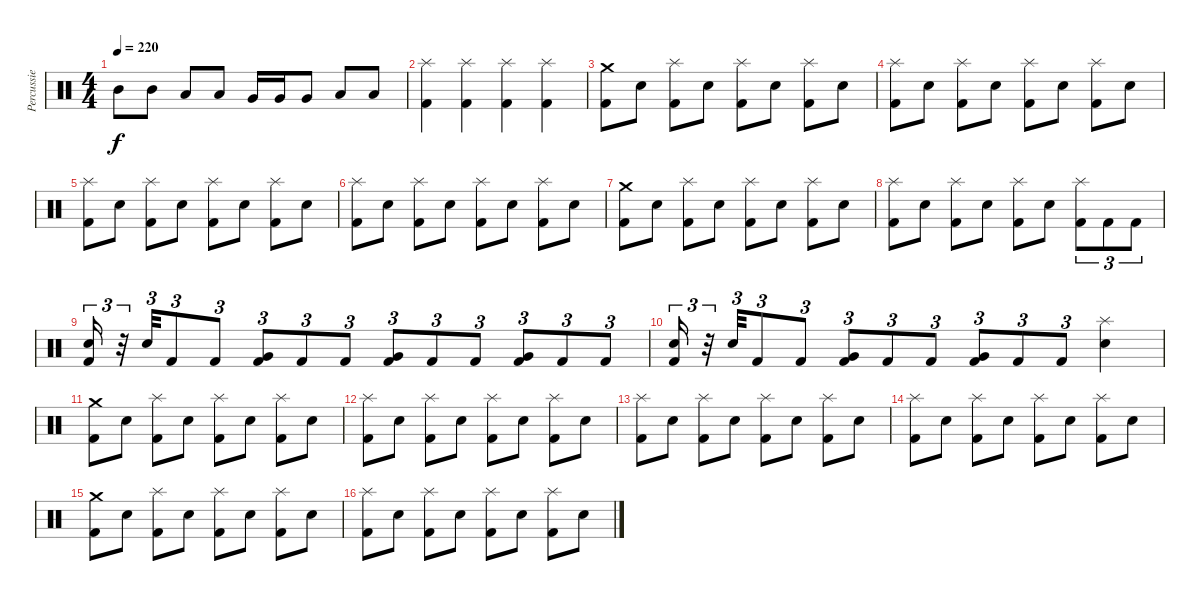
\track ("Percussie" "Percussie") {instrument percussion}
\staff {score}
\articulation defaults
\ts (4 4)
\tempo 220
\clef neutral
\ks c "Mid Tom (hit)".8{dy f} "Mid Tom (hit)".8 "Low Tom (hit)".8 "Low Tom (hit)".8 "Very Low Tom (hit)".16 "Very Low Tom (hit)".16 "Very Low Tom (hit)".8 "Low Floor Tom (hit)".8 "Low Floor Tom (hit)".8
|
("Splash (hit)" "Kick (hit) 2").4 ("Splash (hit)" "Kick (hit) 2").4 ("Splash (hit)" "Kick (hit) 2").4 ("Splash (hit)" "Kick (hit) 2").4 |
("Crash medium (hit)" "Kick (hit) 2").8 "Electric Snare (hit)".8 ("Splash (hit)" "Kick (hit) 2").8 "Electric Snare (hit)".8 ("Splash (hit)" "Kick (hit) 2").8 "Electric Snare (hit)".8 ("Splash (hit)" "Kick (hit) 2").8 "Electric Snare (hit)".8 |
("Splash (hit)" "Kick (hit) 2").8 "Electric Snare (hit)".8 ("Splash (hit)" "Kick (hit) 2").8 "Electric Snare (hit)".8 ("Splash (hit)" "Kick (hit) 2").8 "Electric Snare (hit)".8 ("Splash (hit)" "Kick (hit) 2").8 "Electric Snare (hit)".8 |
("Splash (hit)" "Kick (hit) 2").8 "Electric Snare (hit)".8 ("Splash (hit)" "Kick (hit) 2").8 "Electric Snare (hit)".8 ("Splash (hit)" "Kick (hit) 2").8 "Electric Snare (hit)".8 ("Splash (hit)" "Kick (hit) 2").8 "Electric Snare (hit)".8 |
("Splash (hit)" "Kick (hit) 2").8 "Electric Snare (hit)".8 ("Splash (hit)" "Kick (hit) 2").8 "Electric Snare (hit)".8 ("Splash (hit)" "Kick (hit) 2").8 "Electric Snare (hit)".8 ("Splash (hit)" "Kick (hit) 2").8 "Electric Snare (hit)".8 |
("Crash medium (hit)" "Kick (hit) 2").8 "Electric Snare (hit)".8 ("Splash (hit)" "Kick (hit) 2").8 "Electric Snare (hit)".8 ("Splash (hit)" "Kick (hit) 2").8 "Electric Snare (hit)".8 ("Splash (hit)" "Kick (hit) 2").8 "Electric Snare (hit)".8 |
("Splash (hit)" "Kick (hit) 2").8 "Electric Snare (hit)".8 ("Splash (hit)" "Kick (hit) 2").8 "Electric Snare (hit)".8 ("Splash (hit)" "Kick (hit) 2").8 "Electric Snare (hit)".8 ("Splash (hit)" "Kick (hit) 2").8{tu (3 2)} "Kick (hit) 2".8{tu (3 2)} "Kick (hit) 2".8{tu (3 2)} |
("Electric Snare (hit)" "Kick (hit) 2").16{tu (3 2)} r.32{tu (3 2)} "Electric Snare (hit)".32{tu (3 2)} "Kick (hit) 2".8{tu (3 2)} "Kick (hit) 2".8{tu (3 2)} ("Very Low Tom (hit)" "Kick (hit) 2").8{tu (3 2)} "Kick (hit) 2".8{tu (3 2)} "Kick (hit) 2".8{tu (3 2)} ("Very Low Tom (hit)" "Kick (hit) 2").8{tu (3 2)} "Kick (hit) 2".8{tu (3 2)} "Kick (hit) 2".8{tu (3 2)} ("Very Low Tom (hit)" "Kick (hit) 2").8{tu (3 2)} "Kick (hit) 2".8{tu (3 2)} "Kick (hit) 2".8{tu (3 2)} |
("Electric Snare (hit)" "Kick (hit) 2").16{tu (3 2)} r.32{tu (3 2)} "Electric Snare (hit)".32{tu (3 2)} "Kick (hit) 2".8{tu (3 2)} "Kick (hit) 2".8{tu (3 2)} ("Very Low Tom (hit)" "Kick (hit) 2").8{tu (3 2)} "Kick (hit) 2".8{tu (3 2)} "Kick (hit) 2".8{tu (3 2)} ("Very Low Tom (hit)" "Kick (hit) 2").8{tu (3 2)} "Kick (hit) 2".8{tu (3 2)} "Kick (hit) 2".8{tu (3 2)} ("Splash (hit)" "Electric Snare (hit)").4 |
("Crash medium (hit)" "Kick (hit) 2").8 "Electric Snare (hit)".8 ("Splash (hit)" "Kick (hit) 2").8 "Electric Snare (hit)".8 ("Splash (hit)" "Kick (hit) 2").8 "Electric Snare (hit)".8 ("Splash (hit)" "Kick (hit) 2").8 "Electric Snare (hit)".8 |
("Splash (hit)" "Kick (hit) 2").8 "Electric Snare (hit)".8 ("Splash (hit)" "Kick (hit) 2").8 "Electric Snare (hit)".8 ("Splash (hit)" "Kick (hit) 2").8 "Electric Snare (hit)".8 ("Splash (hit)" "Kick (hit) 2").8 "Electric Snare (hit)".8 |
("Splash (hit)" "Kick (hit) 2").8 "Electric Snare (hit)".8 ("Splash (hit)" "Kick (hit) 2").8 "Electric Snare (hit)".8 ("Splash (hit)" "Kick (hit) 2").8 "Electric Snare (hit)".8 ("Splash (hit)" "Kick (hit) 2").8 "Electric Snare (hit)".8 |
("Splash (hit)" "Kick (hit) 2").8 "Electric Snare (hit)".8 ("Splash (hit)" "Kick (hit) 2").8 "Electric Snare (hit)".8 ("Splash (hit)" "Kick (hit) 2").8 "Electric Snare (hit)".8 ("Splash (hit)" "Kick (hit) 2").8 "Electric Snare (hit)".8 |
("Crash medium (hit)" "Kick (hit) 2").8 "Electric Snare (hit)".8 ("Splash (hit)" "Kick (hit) 2").8 "Electric Snare (hit)".8 ("Splash (hit)" "Kick (hit) 2").8 "Electric Snare (hit)".8 ("Splash (hit)" "Kick (hit) 2").8 "Electric Snare (hit)".8 |
("Splash (hit)" "Kick (hit) 2").8 "Electric Snare (hit)".8 ("Splash (hit)" "Kick (hit) 2").8 "Electric Snare (hit)".8 ("Splash (hit)" "Kick (hit) 2").8 "Electric Snare (hit)".8 ("Splash (hit)" "Kick (hit) 2").8 "Electric Snare (hit)".8
